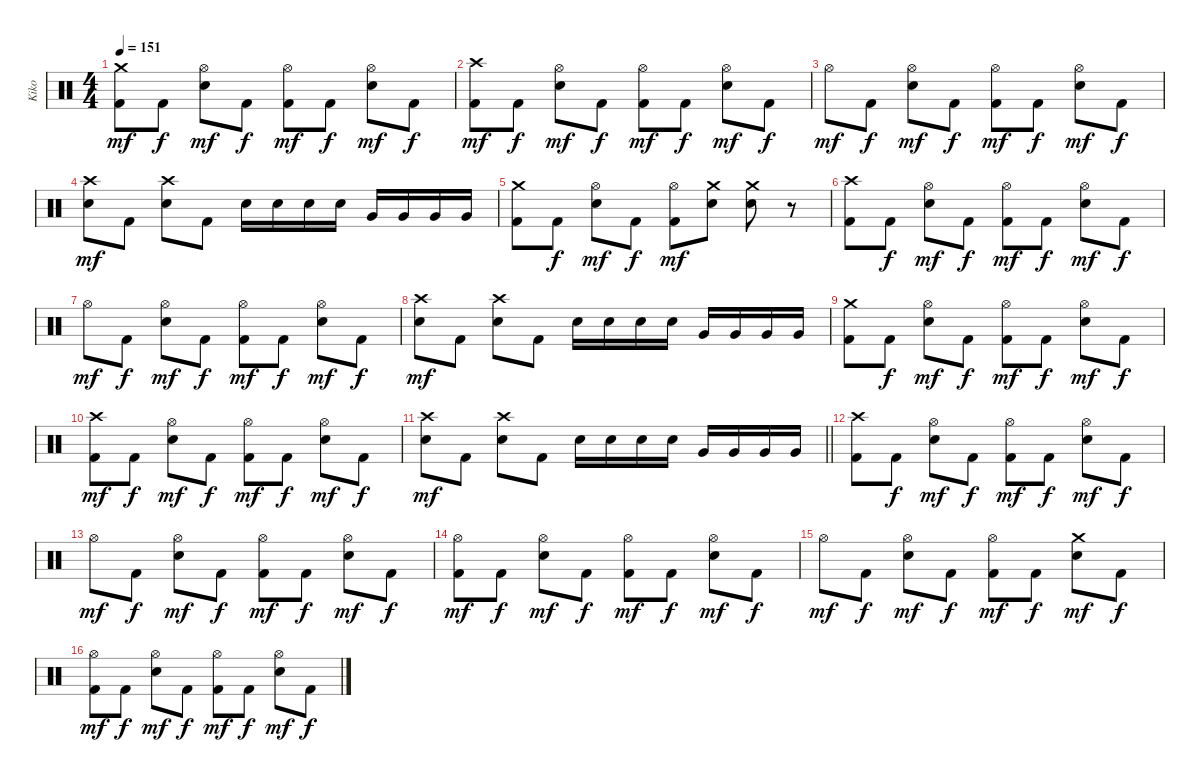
\track ("Kiko" "Kiko") {instrument percussion}
\staff {score}
\articulation defaults
\ts (4 4)
\tempo 151
\clef neutral
\ks c
("Crash medium (hit)" "Kick (hit) 2").8{dy mf} "Kick (hit) 2".8{dy f} ("Hi-Hat (open)" "Electric Snare (hit)").8{dy mf} "Kick (hit) 2".8{dy f} ("Hi-Hat (open)" "Kick (hit) 2").8{dy mf} "Kick (hit) 2".8{dy f} ("Hi-Hat (open)" "Electric Snare (hit)").8{dy mf} "Kick (hit) 2".8{dy f} |
("Crash high (hit)" "Kick (hit) 2").8{dy mf} "Kick (hit) 2".8{dy f} ("Hi-Hat (open)" "Electric Snare (hit)").8{dy mf} "Kick (hit) 2".8{dy f} ("Hi-Hat (open)" "Kick (hit) 2").8{dy mf} "Kick (hit) 2".8{dy f} ("Hi-Hat (open)" "Electric Snare (hit)").8{dy mf} "Kick (hit) 2".8{dy f} |
"Hi-Hat (open)".8{dy mf} "Kick (hit) 2".8{dy f} ("Hi-Hat (open)" "Electric Snare (hit)").8{dy mf} "Kick (hit) 2".8{dy f} ("Hi-Hat (open)" "Kick (hit) 2").8{dy mf} "Kick (hit) 2".8{dy f} ("Hi-Hat (open)" "Electric Snare (hit)").8{dy mf} "Kick (hit) 2".8{dy f} |
("Crash high (hit)" "Electric Snare (hit)").8{dy mf} "Kick (hit) 2".8 ("Crash high (hit)" "Electric Snare (hit)").8 "Kick (hit) 2".8 "Electric Snare (hit)".16 "Electric Snare (hit)".16 "Electric Snare (hit)".16 "Electric Snare (hit)".16 "Very Low Tom (hit)".16 "Very Low Tom (hit)".16 "Very Low Tom (hit)".16 "Very Low Tom (hit)".16 |
("Crash medium (hit)" "Kick (hit) 2").8 "Kick (hit) 2".8{dy f} ("Hi-Hat (open)" "Electric Snare (hit)").8{dy mf} "Kick (hit) 2".8{dy f} ("Hi-Hat (open)" "Kick (hit) 2").8{dy mf} ("Crash medium (hit)" "Electric Snare (hit)").8 ("Crash medium (hit)" "Electric Snare (hit)").8 r.8 |
("Crash high (hit)" "Kick (hit) 2").8 "Kick (hit) 2".8{dy f} ("Hi-Hat (open)" "Electric Snare (hit)").8{dy mf} "Kick (hit) 2".8{dy f} ("Hi-Hat (open)" "Kick (hit) 2").8{dy mf} "Kick (hit) 2".8{dy f} ("Hi-Hat (open)" "Electric Snare (hit)").8{dy mf} "Kick (hit) 2".8{dy f} |
"Hi-Hat (open)".8{dy mf} "Kick (hit) 2".8{dy f} ("Hi-Hat (open)" "Electric Snare (hit)").8{dy mf} "Kick (hit) 2".8{dy f} ("Hi-Hat (open)" "Kick (hit) 2").8{dy mf} "Kick (hit) 2".8{dy f} ("Hi-Hat (open)" "Electric Snare (hit)").8{dy mf} "Kick (hit) 2".8{dy f} |
("Crash high (hit)" "Electric Snare (hit)").8{dy mf} "Kick (hit) 2".8 ("Crash high (hit)" "Electric Snare (hit)").8 "Kick (hit) 2".8 "Electric Snare (hit)".16 "Electric Snare (hit)".16 "Electric Snare (hit)".16 "Electric Snare (hit)".16 "Very Low Tom (hit)".16 "Very Low Tom (hit)".16 "Very Low Tom (hit)".16 "Very Low Tom (hit)".16 |
("Crash medium (hit)" "Kick (hit) 2").8 "Kick (hit) 2".8{dy f} ("Hi-Hat (open)" "Electric Snare (hit)").8{dy mf} "Kick (hit) 2".8{dy f} ("Hi-Hat (open)" "Kick (hit) 2").8{dy mf} "Kick (hit) 2".8{dy f} ("Hi-Hat (open)" "Electric Snare (hit)").8{dy mf} "Kick (hit) 2".8{dy f} |
("Crash high (hit)" "Kick (hit) 2").8{dy mf} "Kick (hit) 2".8{dy f} ("Hi-Hat (open)" "Electric Snare (hit)").8{dy mf} "Kick (hit) 2".8{dy f} ("Hi-Hat (open)" "Kick (hit) 2").8{dy mf} "Kick (hit) 2".8{dy f} ("Hi-Hat (open)" "Electric Snare (hit)").8{dy mf} "Kick (hit) 2".8{dy f} |
\barLineRight lightlight
("Crash high (hit)" "Electric Snare (hit)").8{dy mf} "Kick (hit) 2".8 ("Crash high (hit)" "Electric Snare (hit)").8 "Kick (hit) 2".8 "Electric Snare (hit)".16 "Electric Snare (hit)".16 "Electric Snare (hit)".16 "Electric Snare (hit)".16 "Very Low Tom (hit)".16 "Very Low Tom (hit)".16 "Very Low Tom (hit)".16 "Very Low Tom (hit)".16 |
("Crash high (hit)" "Kick (hit) 2").8 "Kick (hit) 2".8{dy f} ("Hi-Hat (open)" "Electric Snare (hit)").8{dy mf} "Kick (hit) 2".8{dy f} ("Hi-Hat (open)" "Kick (hit) 2").8{dy mf} "Kick (hit) 2".8{dy f} ("Hi-Hat (open)" "Electric Snare (hit)").8{dy mf} "Kick (hit) 2".8{dy f} |
"Hi-Hat (open)".8{dy mf} "Kick (hit) 2".8{dy f} ("Hi-Hat (open)" "Electric Snare (hit)").8{dy mf} "Kick (hit) 2".8{dy f} ("Hi-Hat (open)" "Kick (hit) 2").8{dy mf} "Kick (hit) 2".8{dy f} ("Hi-Hat (open)" "Electric Snare (hit)").8{dy mf} "Kick (hit) 2".8{dy f} |
("Hi-Hat (open)" "Kick (hit) 2").8{dy mf} "Kick (hit) 2".8{dy f} ("Hi-Hat (open)" "Electric Snare (hit)").8{dy mf} "Kick (hit) 2".8{dy f} ("Hi-Hat (open)" "Kick (hit) 2").8{dy mf} "Kick (hit) 2".8{dy f} ("Hi-Hat (open)" "Electric Snare (hit)").8{dy mf} "Kick (hit) 2".8{dy f} |
"Hi-Hat (open)".8{dy mf} "Kick (hit) 2".8{dy f} ("Hi-Hat (open)" "Electric Snare (hit)").8{dy mf} "Kick (hit) 2".8{dy f} ("Hi-Hat (open)" "Kick (hit) 2").8{dy mf} "Kick (hit) 2".8{dy f} ("Crash medium (hit)" "Electric Snare (hit)").8{dy mf} "Kick (hit) 2".8{dy f} |
("Hi-Hat (open)" "Kick (hit) 2").8{dy mf} "Kick (hit) 2".8{dy f} ("Hi-Hat (open)" "Electric Snare (hit)").8{dy mf} "Kick (hit) 2".8{dy f} ("Hi-Hat (open)" "Kick (hit) 2").8{dy mf} "Kick (hit) 2".8{dy f} ("Hi-Hat (open)" "Electric Snare (hit)").8{dy mf} "Kick (hit) 2".8{dy f}
